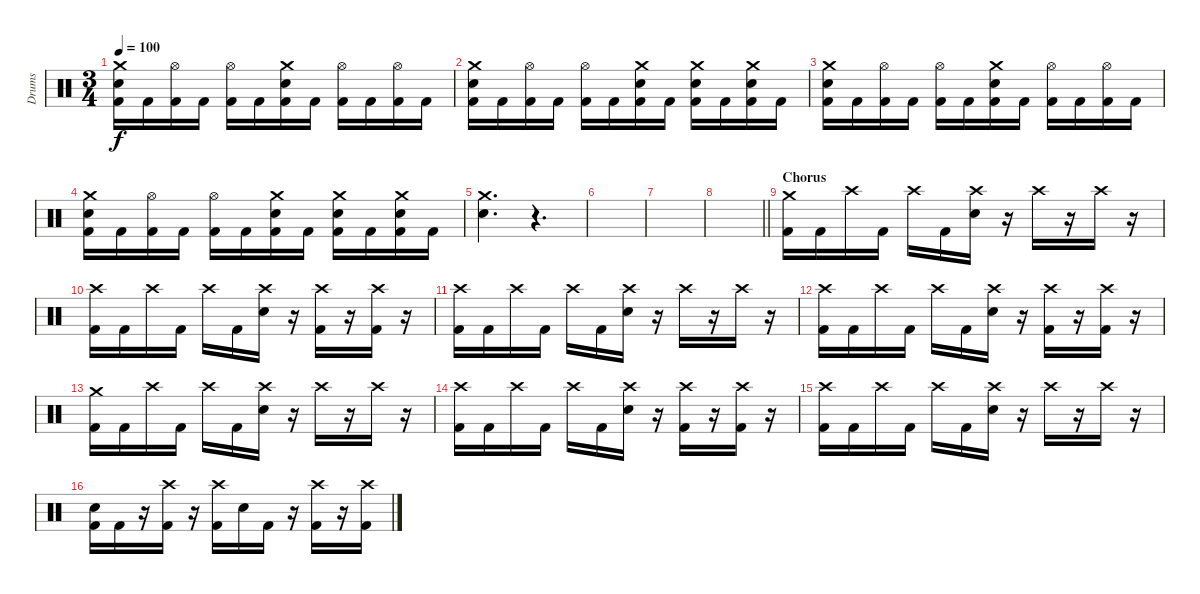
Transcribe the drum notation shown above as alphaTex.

\track ("Drums" "Drums") {instrument percussion}
\staff {score}
\articulation defaults
\ts (3 4)
\tempo 100
\clef neutral
\ks c
("Crash medium (hit)" "Electric Snare (hit)" "Kick (hit) 2").16{dy f} "Kick (hit) 2".16 ("Hi-Hat (open)" "Kick (hit) 2").16 "Kick (hit) 2".16 ("Hi-Hat (open)" "Kick (hit) 2").16 "Kick (hit) 2".16 ("Crash medium (hit)" "Electric Snare (hit)" "Kick (hit) 2").16 "Kick (hit) 2".16 ("Hi-Hat (open)" "Kick (hit) 2").16 "Kick (hit) 2".16 ("Hi-Hat (open)" "Kick (hit) 2").16 "Kick (hit) 2".16 |
("Crash medium (hit)" "Electric Snare (hit)" "Kick (hit) 2").16 "Kick (hit) 2".16 ("Hi-Hat (open)" "Kick (hit) 2").16 "Kick (hit) 2".16 ("Hi-Hat (open)" "Kick (hit) 2").16 "Kick (hit) 2".16 ("Crash medium (hit)" "Electric Snare (hit)" "Kick (hit) 2").16 "Kick (hit) 2".16 ("Crash medium (hit)" "Electric Snare (hit)" "Kick (hit) 2").16 "Kick (hit) 2".16 ("Crash medium (hit)" "Electric Snare (hit)" "Kick (hit) 2").16 "Kick (hit) 2".16 |
("Crash medium (hit)" "Electric Snare (hit)" "Kick (hit) 2").16 "Kick (hit) 2".16 ("Hi-Hat (open)" "Kick (hit) 2").16 "Kick (hit) 2".16 ("Hi-Hat (open)" "Kick (hit) 2").16 "Kick (hit) 2".16 ("Crash medium (hit)" "Electric Snare (hit)" "Kick (hit) 2").16 "Kick (hit) 2".16 ("Hi-Hat (open)" "Kick (hit) 2").16 "Kick (hit) 2".16 ("Hi-Hat (open)" "Kick (hit) 2").16 "Kick (hit) 2".16 |
("Crash medium (hit)" "Electric Snare (hit)" "Kick (hit) 2").16 "Kick (hit) 2".16 ("Hi-Hat (open)" "Kick (hit) 2").16 "Kick (hit) 2".16 ("Hi-Hat (open)" "Kick (hit) 2").16 "Kick (hit) 2".16 ("Crash medium (hit)" "Electric Snare (hit)" "Kick (hit) 2").16 "Kick (hit) 2".16 ("Crash medium (hit)" "Electric Snare (hit)" "Kick (hit) 2").16 "Kick (hit) 2".16 ("Crash medium (hit)" "Electric Snare (hit)" "Kick (hit) 2").16 "Kick (hit) 2".16 |
("Crash medium (hit)" "Electric Snare (hit)").4{d} r.4{d} |
|
|
\barLineRight lightlight
|
\section ("" "Chorus")
("Crash medium (hit)" "Kick (hit) 2").16 "Kick (hit) 2".16 "Crash high (hit)".16 "Kick (hit) 2".16 "Crash high (hit)".16 "Kick (hit) 2".16 ("Crash high (hit)" "Electric Snare (hit)").16 r.16 "Crash high (hit)".16 r.16 "Crash high (hit)".16 r.16 |
("Crash high (hit)" "Kick (hit) 2").16 "Kick (hit) 2".16 "Crash high (hit)".16 "Kick (hit) 2".16 "Crash high (hit)".16 "Kick (hit) 2".16 ("Crash high (hit)" "Electric Snare (hit)").16 r.16 ("Crash high (hit)" "Kick (hit) 2").16 r.16 ("Crash high (hit)" "Kick (hit) 2").16 r.16 |
("Crash high (hit)" "Kick (hit) 2").16 "Kick (hit) 2".16 "Crash high (hit)".16 "Kick (hit) 2".16 "Crash high (hit)".16 "Kick (hit) 2".16 ("Crash high (hit)" "Electric Snare (hit)").16 r.16 "Crash high (hit)".16 r.16 "Crash high (hit)".16 r.16 |
("Crash high (hit)" "Kick (hit) 2").16 "Kick (hit) 2".16 "Crash high (hit)".16 "Kick (hit) 2".16 "Crash high (hit)".16 "Kick (hit) 2".16 ("Crash high (hit)" "Electric Snare (hit)").16 r.16 ("Crash high (hit)" "Kick (hit) 2").16 r.16 ("Crash high (hit)" "Kick (hit) 2").16 r.16 |
("Crash medium (hit)" "Kick (hit) 2").16 "Kick (hit) 2".16 "Crash high (hit)".16 "Kick (hit) 2".16 "Crash high (hit)".16 "Kick (hit) 2".16 ("Crash high (hit)" "Electric Snare (hit)").16 r.16 "Crash high (hit)".16 r.16 "Crash high (hit)".16 r.16 |
("Crash high (hit)" "Kick (hit) 2").16 "Kick (hit) 2".16 "Crash high (hit)".16 "Kick (hit) 2".16 "Crash high (hit)".16 "Kick (hit) 2".16 ("Crash high (hit)" "Electric Snare (hit)").16 r.16 ("Crash high (hit)" "Kick (hit) 2").16 r.16 ("Crash high (hit)" "Kick (hit) 2").16 r.16 |
("Crash high (hit)" "Kick (hit) 2").16 "Kick (hit) 2".16 "Crash high (hit)".16 "Kick (hit) 2".16 "Crash high (hit)".16 "Kick (hit) 2".16 ("Crash high (hit)" "Electric Snare (hit)").16 r.16 "Crash high (hit)".16 r.16 "Crash high (hit)".16 r.16 |
("Electric Snare (hit)" "Kick (hit) 2").16 "Kick (hit) 2".16 r.16 ("Crash high (hit)" "Kick (hit) 2").16 r.16 ("Crash high (hit)" "Kick (hit) 2").16 "Electric Snare (hit)".16 "Kick (hit) 2".16 r.16 ("Crash high (hit)" "Kick (hit) 2").16 r.16 ("Crash high (hit)" "Kick (hit) 2").16
